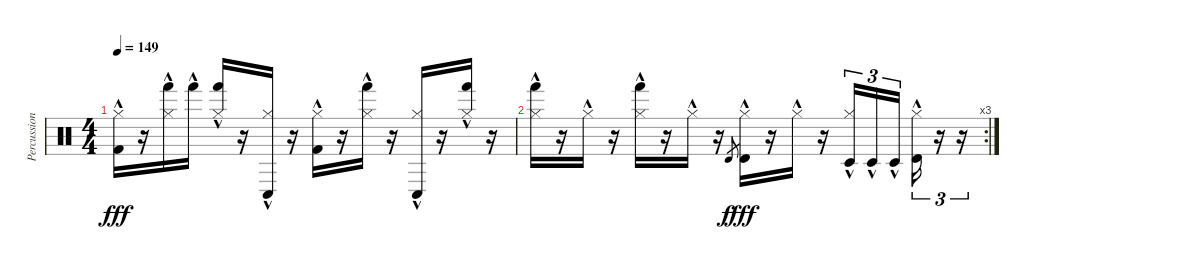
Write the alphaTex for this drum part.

\track ("Percussion" "Percussion") {instrument percussion}
\staff {score}
\articulation defaults
\ts (4 4)
\tempo 149
\clef neutral
\ks c
("Hi-Hat (closed)"{hac} "Kick (hit) 2"{hac}).16{dy fff} r.16 ("Hi-Hat (closed)"{hac} "Hand (hit)"{hac}).16 "Hand (hit)"{hac}.16 ("Hi-Hat (closed)"{hac} "Hand (hit)"{hac}).16 r.16 ("Hi-Hat (closed)"{hac} "Conga low (hit)"{hac}).16 r.16 ("Hi-Hat (closed)"{hac} "Kick (hit) 2"{hac}).16 r.16 ("Hi-Hat (closed)"{hac} "Hand (hit)"{hac}).16 r.16 ("Hi-Hat (closed)"{hac} "Conga low (hit)"{hac}).16 r.16 ("Hi-Hat (closed)"{hac} "Hand (hit)"{hac}).16 r.16 |
\rc 3
("Hi-Hat (closed)"{hac} "Hand (hit)"{hac}).16 r.16 "Hi-Hat (closed)"{hac}.16 r.16 ("Hi-Hat (closed)"{hac} "Hand (hit)"{hac}).16 r.16 "Hi-Hat (closed)"{hac}.16 r.16 "Timbale high (hit)".8{gr dy f} ("Hi-Hat (closed)"{hac} "Timbale high (hit)"{hac}).16{dy fff} r.16 "Hi-Hat (closed)"{hac}.16 r.16 ("Hi-Hat (closed)"{hac} "Timbale low (hit)"{hac}).16{tu (3 2)} "Timbale low (hit)"{hac}.16{tu (3 2)} "Timbale low (hit)"{hac}.16{tu (3 2) beam splitsecondary} ("Hi-Hat (closed)"{hac} "Timbale high (hit)"{hac}).16{tu (3 2)} r.16{tu (3 2)} r.16{tu (3 2)}
